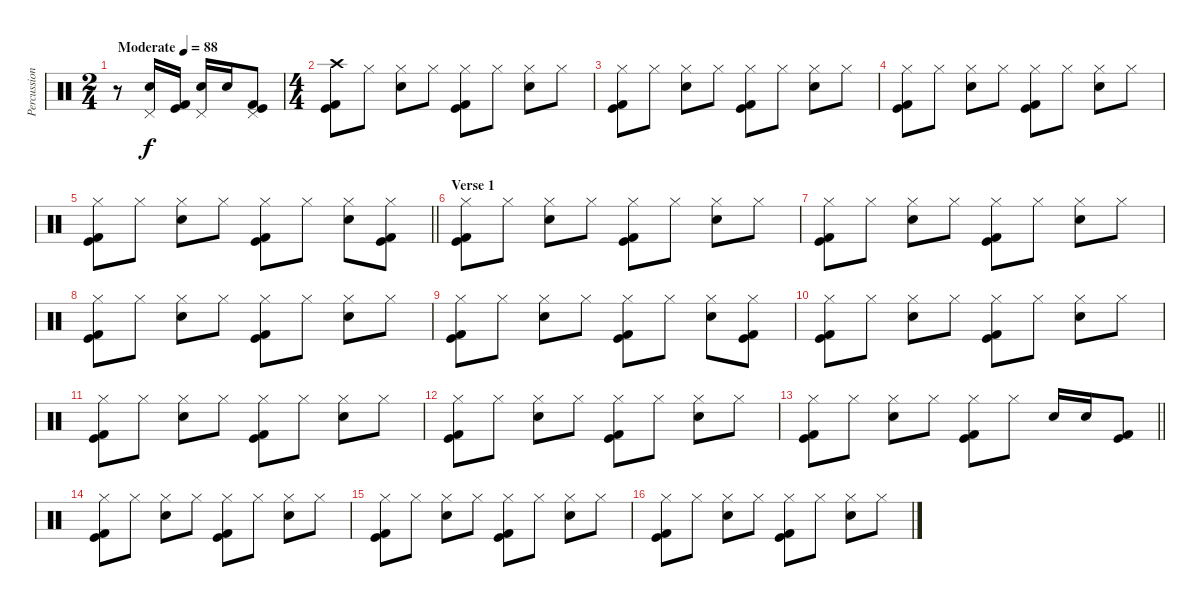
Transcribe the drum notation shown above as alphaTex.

\track ("Percussion" "Percussion") {instrument percussion}
\staff {score}
\articulation defaults
\ts (2 4)
\tempo (88 "Moderate")
\clef neutral
\ks c
r.8{dy f} ("Pedal Hi-Hat (hit)" "Electric Snare (hit)").16 ("Kick (hit)" "Kick (hit) 2").16 ("Pedal Hi-Hat (hit)" "Electric Snare (hit)").16 "Electric Snare (hit)".16 ("Pedal Hi-Hat (hit)" "Kick (hit)" "Kick (hit) 2").8 |
\ts (4 4)
("Crash high (hit)" "Kick (hit)" "Kick (hit) 2").8 "Hi-Hat (closed)".8 ("Hi-Hat (closed)" "Electric Snare (hit)").8 "Hi-Hat (closed)".8 ("Hi-Hat (closed)" "Kick (hit)" "Kick (hit) 2").8 "Hi-Hat (closed)".8 ("Hi-Hat (closed)" "Electric Snare (hit)").8 "Hi-Hat (closed)".8 |
("Hi-Hat (closed)" "Kick (hit)" "Kick (hit) 2").8 "Hi-Hat (closed)".8 ("Hi-Hat (closed)" "Electric Snare (hit)").8 "Hi-Hat (closed)".8 ("Hi-Hat (closed)" "Kick (hit)" "Kick (hit) 2").8 "Hi-Hat (closed)".8 ("Hi-Hat (closed)" "Electric Snare (hit)").8 "Hi-Hat (closed)".8 |
("Hi-Hat (closed)" "Kick (hit)" "Kick (hit) 2").8 "Hi-Hat (closed)".8 ("Hi-Hat (closed)" "Electric Snare (hit)").8 "Hi-Hat (closed)".8 ("Hi-Hat (closed)" "Kick (hit)" "Kick (hit) 2").8 "Hi-Hat (closed)".8 ("Hi-Hat (closed)" "Electric Snare (hit)").8 "Hi-Hat (closed)".8 |
\barLineRight lightlight
("Hi-Hat (closed)" "Kick (hit)" "Kick (hit) 2").8 "Hi-Hat (closed)".8 ("Hi-Hat (closed)" "Electric Snare (hit)").8 "Hi-Hat (closed)".8 ("Hi-Hat (closed)" "Kick (hit)" "Kick (hit) 2").8 "Hi-Hat (closed)".8 ("Hi-Hat (closed)" "Electric Snare (hit)").8 ("Hi-Hat (closed)" "Kick (hit)" "Kick (hit) 2").8 |
\section ("" "Verse 1")
("Hi-Hat (closed)" "Kick (hit)" "Kick (hit) 2").8 "Hi-Hat (closed)".8 ("Hi-Hat (closed)" "Electric Snare (hit)").8 "Hi-Hat (closed)".8 ("Hi-Hat (closed)" "Kick (hit)" "Kick (hit) 2").8 "Hi-Hat (closed)".8 ("Hi-Hat (closed)" "Electric Snare (hit)").8 "Hi-Hat (closed)".8 |
("Hi-Hat (closed)" "Kick (hit)" "Kick (hit) 2").8 "Hi-Hat (closed)".8 ("Hi-Hat (closed)" "Electric Snare (hit)").8 "Hi-Hat (closed)".8 ("Hi-Hat (closed)" "Kick (hit)" "Kick (hit) 2").8 "Hi-Hat (closed)".8 ("Hi-Hat (closed)" "Electric Snare (hit)").8 "Hi-Hat (closed)".8 |
("Hi-Hat (closed)" "Kick (hit)" "Kick (hit) 2").8 "Hi-Hat (closed)".8 ("Hi-Hat (closed)" "Electric Snare (hit)").8 "Hi-Hat (closed)".8 ("Hi-Hat (closed)" "Kick (hit)" "Kick (hit) 2").8 "Hi-Hat (closed)".8 ("Hi-Hat (closed)" "Electric Snare (hit)").8 "Hi-Hat (closed)".8 |
("Hi-Hat (closed)" "Kick (hit)" "Kick (hit) 2").8 "Hi-Hat (closed)".8 ("Hi-Hat (closed)" "Electric Snare (hit)").8 "Hi-Hat (closed)".8 ("Hi-Hat (closed)" "Kick (hit)" "Kick (hit) 2").8 "Hi-Hat (closed)".8 ("Hi-Hat (closed)" "Electric Snare (hit)").8 ("Hi-Hat (closed)" "Kick (hit)" "Kick (hit) 2").8 |
("Hi-Hat (closed)" "Kick (hit)" "Kick (hit) 2").8 "Hi-Hat (closed)".8 ("Hi-Hat (closed)" "Electric Snare (hit)").8 "Hi-Hat (closed)".8 ("Hi-Hat (closed)" "Kick (hit)" "Kick (hit) 2").8 "Hi-Hat (closed)".8 ("Hi-Hat (closed)" "Electric Snare (hit)").8 "Hi-Hat (closed)".8 |
("Hi-Hat (closed)" "Kick (hit)" "Kick (hit) 2").8 "Hi-Hat (closed)".8 ("Hi-Hat (closed)" "Electric Snare (hit)").8 "Hi-Hat (closed)".8 ("Hi-Hat (closed)" "Kick (hit)" "Kick (hit) 2").8 "Hi-Hat (closed)".8 ("Hi-Hat (closed)" "Electric Snare (hit)").8 "Hi-Hat (closed)".8 |
("Hi-Hat (closed)" "Kick (hit)" "Kick (hit) 2").8 "Hi-Hat (closed)".8 ("Hi-Hat (closed)" "Electric Snare (hit)").8 "Hi-Hat (closed)".8 ("Hi-Hat (closed)" "Kick (hit)" "Kick (hit) 2").8 "Hi-Hat (closed)".8 ("Hi-Hat (closed)" "Electric Snare (hit)").8 "Hi-Hat (closed)".8 |
\barLineRight lightlight
("Hi-Hat (closed)" "Kick (hit)" "Kick (hit) 2").8 "Hi-Hat (closed)".8 ("Hi-Hat (closed)" "Electric Snare (hit)").8 "Hi-Hat (closed)".8 ("Hi-Hat (closed)" "Kick (hit)" "Kick (hit) 2").8 "Hi-Hat (closed)".8 "Electric Snare (hit)".16 "Electric Snare (hit)".16 ("Kick (hit)" "Kick (hit) 2").8 |
\section ("" "")
("Hi-Hat (closed)" "Kick (hit)" "Kick (hit) 2").8 "Hi-Hat (closed)".8 ("Hi-Hat (closed)" "Electric Snare (hit)").8 "Hi-Hat (closed)".8 ("Hi-Hat (closed)" "Kick (hit)" "Kick (hit) 2").8 "Hi-Hat (closed)".8 ("Hi-Hat (closed)" "Electric Snare (hit)").8 "Hi-Hat (closed)".8 |
("Hi-Hat (closed)" "Kick (hit)" "Kick (hit) 2").8 "Hi-Hat (closed)".8 ("Hi-Hat (closed)" "Electric Snare (hit)").8 "Hi-Hat (closed)".8 ("Hi-Hat (closed)" "Kick (hit)" "Kick (hit) 2").8 "Hi-Hat (closed)".8 ("Hi-Hat (closed)" "Electric Snare (hit)").8 "Hi-Hat (closed)".8 |
("Hi-Hat (closed)" "Kick (hit)" "Kick (hit) 2").8 "Hi-Hat (closed)".8 ("Hi-Hat (closed)" "Electric Snare (hit)").8 "Hi-Hat (closed)".8 ("Hi-Hat (closed)" "Kick (hit)" "Kick (hit) 2").8 "Hi-Hat (closed)".8 ("Hi-Hat (closed)" "Electric Snare (hit)").8 "Hi-Hat (closed)".8
